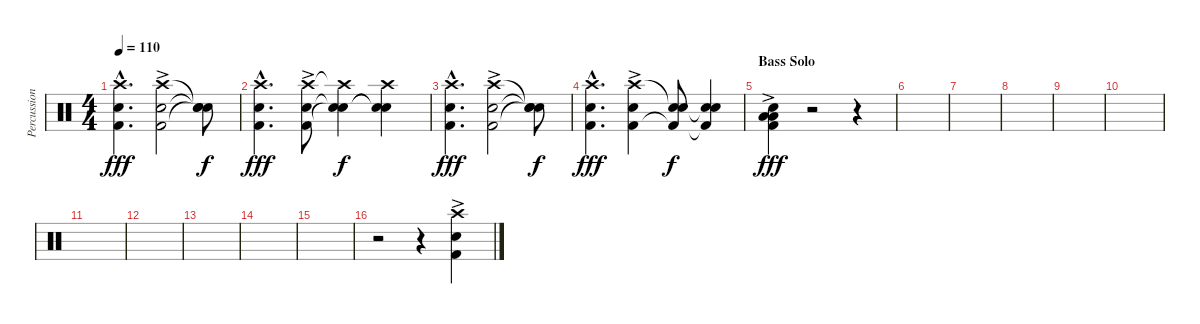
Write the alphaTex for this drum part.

\track ("Percussion" "Percussion") {instrument percussion}
\staff {score}
\articulation defaults
\ts (4 4)
\tempo 110
\clef neutral
\ks c
("Crash high (hit)"{hac} "Snare (hit) 2"{hac} "Kick (hit) 2"{hac}).4{d dy fff} ("Crash high (hit)"{ac} "Snare (hit) 2" "Kick (hit) 2").2 ("Snare (hit)"{t} "Snare (hit)"{t} "Snare (hit)"{t}).8{dy f} |
("Crash high (hit)"{hac} "Snare (hit) 2"{hac} "Kick (hit) 2"{hac}).4{d dy fff} ("Crash high (hit)"{ac} "Snare (hit) 2" "Kick (hit) 2").8 ("Crash high (hit)"{t} "Snare (hit)"{t} "Snare (hit)"{t}).4{dy f} ("Crash high (hit)" "Snare (hit)"{t} "Snare (hit)"{t}).4 |
("Crash high (hit)"{hac} "Snare (hit) 2"{hac} "Kick (hit) 2"{hac}).4{d dy fff} ("Crash high (hit)"{ac} "Snare (hit) 2" "Kick (hit) 2").2 ("Snare (hit)"{t} "Snare (hit)"{t} "Snare (hit)"{t}).8{dy f} |
("Crash high (hit)"{hac} "Snare (hit) 2"{hac} "Kick (hit) 2"{hac}).4{d dy fff} ("Crash high (hit)"{ac} "Snare (hit) 2" "Kick (hit) 2").4 ("Snare (hit)"{t} "Snare (hit) 2" "Kick (hit) 2"{t}).8{dy f} ("Snare (hit)"{t} "Snare (hit) 2" "Kick (hit) 2"{t}).4 |
\section ("" "Bass Solo")
("Snare (hit) 2" "Low Tom (hit)" "Low Floor Tom (hit)" "Kick (hit) 2"{ac}).4{dy fff} r.2 r.4 |
|
|
|
|
|
|
|
|
|
|
r.2 r.4 ("Crash high (hit)" "Snare (hit) 2"{ac} "Kick (hit) 2").4
